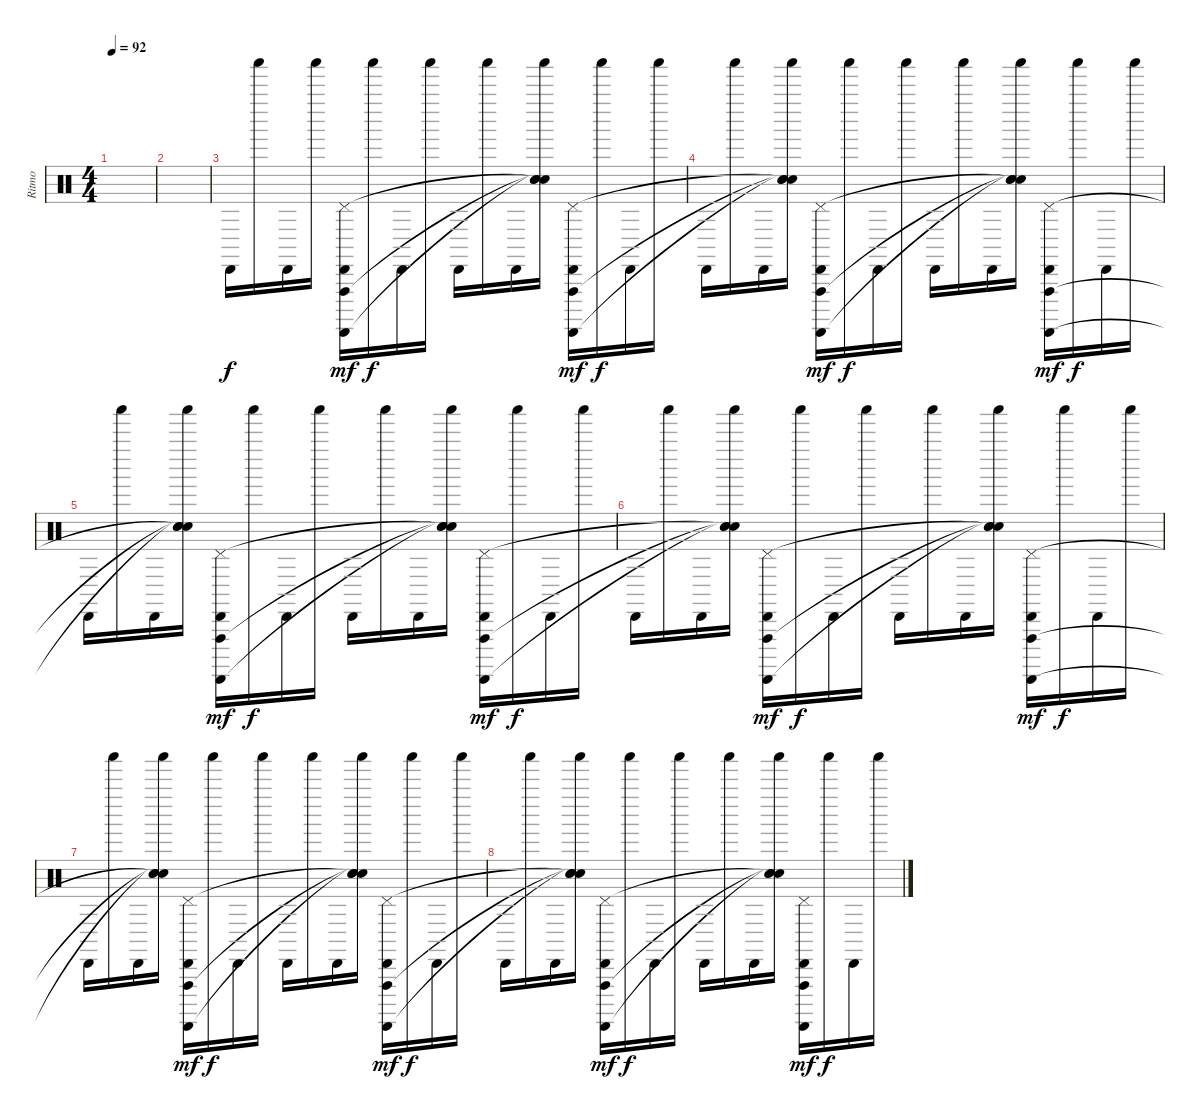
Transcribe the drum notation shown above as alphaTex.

\track ("Ritmo" "Ritmo") {instrument percussion}
\staff {score}
\articulation defaults
\ts (4 4)
\tempo 92
\clef neutral
\ks c
|
|
"Cabasa (hit)".16 "Shaker (hit)".16 "Cabasa (hit)".16 "Shaker (hit)".16 ("Cabasa (hit)" "Vibraslap (hit)" "Guiro (scrap-return)" "Pedal Hi-Hat (hit)").16{dy mf} "Shaker (hit)".16{dy f} "Cabasa (hit)".16 "Shaker (hit)".16 "Cabasa (hit)".16 "Shaker (hit)".16 "Cabasa (hit)".16 ("Shaker (hit)" "Snare (hit)"{t} "Snare (hit)"{t} "Snare (hit)"{t}).16 ("Cabasa (hit)" "Vibraslap (hit)" "Guiro (scrap-return)" "Pedal Hi-Hat (hit)").16{dy mf} "Shaker (hit)".16{dy f} "Cabasa (hit)".16 "Shaker (hit)".16 |
"Cabasa (hit)".16 "Shaker (hit)".16 "Cabasa (hit)".16 ("Shaker (hit)" "Snare (hit)"{t} "Snare (hit)"{t} "Snare (hit)"{t}).16 ("Cabasa (hit)" "Vibraslap (hit)" "Guiro (scrap-return)" "Pedal Hi-Hat (hit)").16{dy mf} "Shaker (hit)".16{dy f} "Cabasa (hit)".16 "Shaker (hit)".16 "Cabasa (hit)".16 "Shaker (hit)".16 "Cabasa (hit)".16 ("Shaker (hit)" "Snare (hit)"{t} "Snare (hit)"{t} "Snare (hit)"{t}).16 ("Cabasa (hit)" "Vibraslap (hit)" "Guiro (scrap-return)" "Pedal Hi-Hat (hit)").16{dy mf} "Shaker (hit)".16{dy f} "Cabasa (hit)".16 "Shaker (hit)".16 |
"Cabasa (hit)".16 "Shaker (hit)".16 "Cabasa (hit)".16 ("Shaker (hit)" "Snare (hit)"{t} "Snare (hit)"{t} "Snare (hit)"{t}).16 ("Cabasa (hit)" "Vibraslap (hit)" "Guiro (scrap-return)" "Pedal Hi-Hat (hit)").16{dy mf} "Shaker (hit)".16{dy f} "Cabasa (hit)".16 "Shaker (hit)".16 "Cabasa (hit)".16 "Shaker (hit)".16 "Cabasa (hit)".16 ("Shaker (hit)" "Snare (hit)"{t} "Snare (hit)"{t} "Snare (hit)"{t}).16 ("Cabasa (hit)" "Vibraslap (hit)" "Guiro (scrap-return)" "Pedal Hi-Hat (hit)").16{dy mf} "Shaker (hit)".16{dy f} "Cabasa (hit)".16 "Shaker (hit)".16 |
"Cabasa (hit)".16 "Shaker (hit)".16 "Cabasa (hit)".16 ("Shaker (hit)" "Snare (hit)"{t} "Snare (hit)"{t} "Snare (hit)"{t}).16 ("Cabasa (hit)" "Vibraslap (hit)" "Guiro (scrap-return)" "Pedal Hi-Hat (hit)").16{dy mf} "Shaker (hit)".16{dy f} "Cabasa (hit)".16 "Shaker (hit)".16 "Cabasa (hit)".16 "Shaker (hit)".16 "Cabasa (hit)".16 ("Shaker (hit)" "Snare (hit)"{t} "Snare (hit)"{t} "Snare (hit)"{t}).16 ("Cabasa (hit)" "Vibraslap (hit)" "Guiro (scrap-return)" "Pedal Hi-Hat (hit)").16{dy mf} "Shaker (hit)".16{dy f} "Cabasa (hit)".16 "Shaker (hit)".16 |
"Cabasa (hit)".16 "Shaker (hit)".16 "Cabasa (hit)".16 ("Shaker (hit)" "Snare (hit)"{t} "Snare (hit)"{t} "Snare (hit)"{t}).16 ("Cabasa (hit)" "Vibraslap (hit)" "Guiro (scrap-return)" "Pedal Hi-Hat (hit)").16{dy mf} "Shaker (hit)".16{dy f} "Cabasa (hit)".16 "Shaker (hit)".16 "Cabasa (hit)".16 "Shaker (hit)".16 "Cabasa (hit)".16 ("Shaker (hit)" "Snare (hit)"{t} "Snare (hit)"{t} "Snare (hit)"{t}).16 ("Cabasa (hit)" "Vibraslap (hit)" "Guiro (scrap-return)" "Pedal Hi-Hat (hit)").16{dy mf} "Shaker (hit)".16{dy f} "Cabasa (hit)".16 "Shaker (hit)".16 |
"Cabasa (hit)".16 "Shaker (hit)".16 "Cabasa (hit)".16 ("Shaker (hit)" "Snare (hit)"{t} "Snare (hit)"{t} "Snare (hit)"{t}).16 ("Cabasa (hit)" "Vibraslap (hit)" "Guiro (scrap-return)" "Pedal Hi-Hat (hit)").16{dy mf} "Shaker (hit)".16{dy f} "Cabasa (hit)".16 "Shaker (hit)".16 "Cabasa (hit)".16 "Shaker (hit)".16 "Cabasa (hit)".16 ("Shaker (hit)" "Snare (hit)"{t} "Snare (hit)"{t} "Snare (hit)"{t}).16 ("Cabasa (hit)" "Vibraslap (hit)" "Guiro (scrap-return)" "Pedal Hi-Hat (hit)").16{dy mf} "Shaker (hit)".16{dy f} "Cabasa (hit)".16 "Shaker (hit)".16
